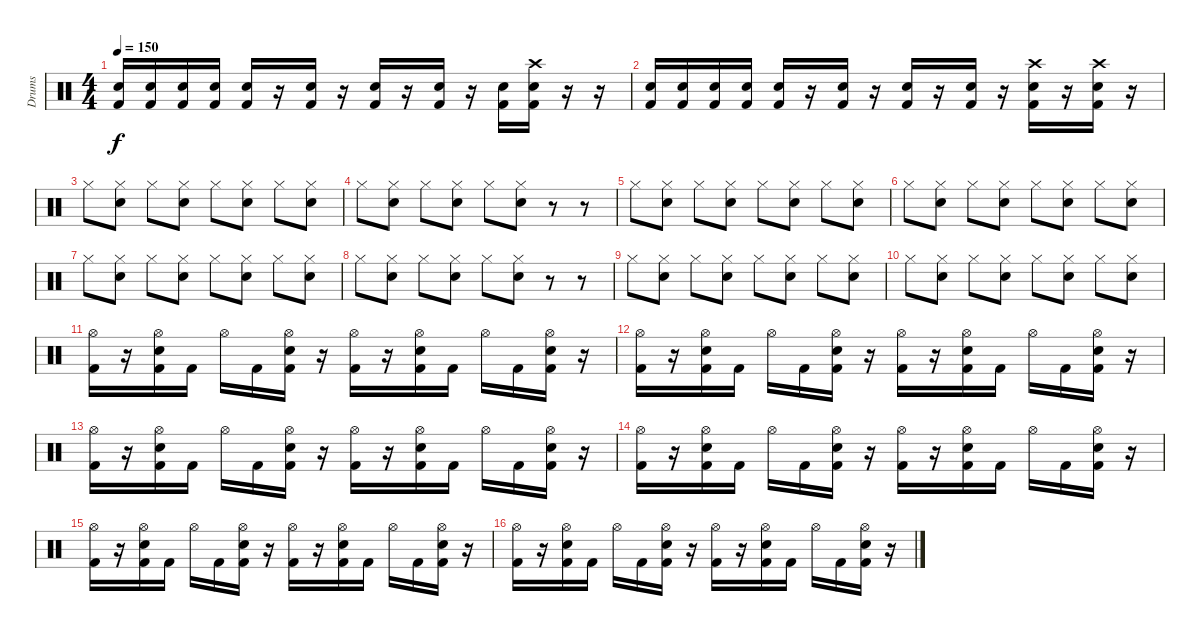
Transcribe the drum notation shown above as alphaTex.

\track ("Drums" "Drums") {instrument percussion}
\staff {score}
\articulation defaults
\ts (4 4)
\tempo 150
\clef neutral
\ks c
("Electric Snare (hit)" "Kick (hit) 2").16{dy f} ("Electric Snare (hit)" "Kick (hit) 2").16 ("Electric Snare (hit)" "Kick (hit) 2").16 ("Electric Snare (hit)" "Kick (hit) 2").16 ("Electric Snare (hit)" "Kick (hit) 2").16 r.16 ("Electric Snare (hit)" "Kick (hit) 2").16 r.16 ("Electric Snare (hit)" "Kick (hit) 2").16 r.16 ("Electric Snare (hit)" "Kick (hit) 2").16 r.16 ("Electric Snare (hit)" "Kick (hit) 2").16 ("Electric Snare (hit)" "Crash high (hit)" "Kick (hit) 2").16 r.16 r.16 |
("Electric Snare (hit)" "Kick (hit) 2").16 ("Electric Snare (hit)" "Kick (hit) 2").16 ("Electric Snare (hit)" "Kick (hit) 2").16 ("Electric Snare (hit)" "Kick (hit) 2").16 ("Electric Snare (hit)" "Kick (hit) 2").16 r.16 ("Electric Snare (hit)" "Kick (hit) 2").16 r.16 ("Electric Snare (hit)" "Kick (hit) 2").16 r.16 ("Electric Snare (hit)" "Kick (hit) 2").16 r.16 ("Electric Snare (hit)" "Kick (hit) 2" "Crash high (hit)").16 r.16 ("Electric Snare (hit)" "Kick (hit) 2" "Crash high (hit)").16 r.16 |
"Hi-Hat (closed)".8 ("Hi-Hat (closed)" "Electric Snare (hit)").8 "Hi-Hat (closed)".8 ("Hi-Hat (closed)" "Electric Snare (hit)").8 "Hi-Hat (closed)".8 ("Hi-Hat (closed)" "Electric Snare (hit)").8 "Hi-Hat (closed)".8 ("Hi-Hat (closed)" "Electric Snare (hit)").8 |
"Hi-Hat (closed)".8 ("Hi-Hat (closed)" "Electric Snare (hit)").8 "Hi-Hat (closed)".8 ("Hi-Hat (closed)" "Electric Snare (hit)").8 "Hi-Hat (closed)".8 ("Hi-Hat (closed)" "Electric Snare (hit)").8 r.8 r.8 |
"Hi-Hat (closed)".8 ("Hi-Hat (closed)" "Electric Snare (hit)").8 "Hi-Hat (closed)".8 ("Hi-Hat (closed)" "Electric Snare (hit)").8 "Hi-Hat (closed)".8 ("Hi-Hat (closed)" "Electric Snare (hit)").8 "Hi-Hat (closed)".8 ("Hi-Hat (closed)" "Electric Snare (hit)").8 |
"Hi-Hat (closed)".8 ("Hi-Hat (closed)" "Electric Snare (hit)").8 "Hi-Hat (closed)".8 ("Hi-Hat (closed)" "Electric Snare (hit)").8 "Hi-Hat (closed)".8 ("Hi-Hat (closed)" "Electric Snare (hit)").8 "Hi-Hat (closed)".8 ("Hi-Hat (closed)" "Electric Snare (hit)").8 |
"Hi-Hat (closed)".8 ("Hi-Hat (closed)" "Electric Snare (hit)").8 "Hi-Hat (closed)".8 ("Hi-Hat (closed)" "Electric Snare (hit)").8 "Hi-Hat (closed)".8 ("Hi-Hat (closed)" "Electric Snare (hit)").8 "Hi-Hat (closed)".8 ("Hi-Hat (closed)" "Electric Snare (hit)").8 |
"Hi-Hat (closed)".8 ("Hi-Hat (closed)" "Electric Snare (hit)").8 "Hi-Hat (closed)".8 ("Hi-Hat (closed)" "Electric Snare (hit)").8 "Hi-Hat (closed)".8 ("Hi-Hat (closed)" "Electric Snare (hit)").8 r.8 r.8 |
"Hi-Hat (closed)".8 ("Hi-Hat (closed)" "Electric Snare (hit)").8 "Hi-Hat (closed)".8 ("Hi-Hat (closed)" "Electric Snare (hit)").8 "Hi-Hat (closed)".8 ("Hi-Hat (closed)" "Electric Snare (hit)").8 "Hi-Hat (closed)".8 ("Hi-Hat (closed)" "Electric Snare (hit)").8 |
"Hi-Hat (closed)".8 ("Hi-Hat (closed)" "Electric Snare (hit)").8 "Hi-Hat (closed)".8 ("Hi-Hat (closed)" "Electric Snare (hit)").8 "Hi-Hat (closed)".8 ("Hi-Hat (closed)" "Electric Snare (hit)").8 "Hi-Hat (closed)".8 ("Hi-Hat (closed)" "Electric Snare (hit)").8 |
("Hi-Hat (open)" "Kick (hit) 2").16 r.16 ("Hi-Hat (open)" "Electric Snare (hit)" "Kick (hit) 2").16 "Kick (hit) 2".16 "Hi-Hat (open)".16 "Kick (hit) 2".16 ("Hi-Hat (open)" "Electric Snare (hit)" "Kick (hit) 2").16 r.16 ("Hi-Hat (open)" "Kick (hit) 2").16 r.16 ("Hi-Hat (open)" "Electric Snare (hit)" "Kick (hit) 2").16 "Kick (hit) 2".16 "Hi-Hat (open)".16 "Kick (hit) 2".16 ("Hi-Hat (open)" "Electric Snare (hit)" "Kick (hit) 2").16 r.16 |
("Hi-Hat (open)" "Kick (hit) 2").16 r.16 ("Hi-Hat (open)" "Electric Snare (hit)" "Kick (hit) 2").16 "Kick (hit) 2".16 "Hi-Hat (open)".16 "Kick (hit) 2".16 ("Hi-Hat (open)" "Electric Snare (hit)" "Kick (hit) 2").16 r.16 ("Hi-Hat (open)" "Kick (hit) 2").16 r.16 ("Hi-Hat (open)" "Electric Snare (hit)" "Kick (hit) 2").16 "Kick (hit) 2".16 "Hi-Hat (open)".16 "Kick (hit) 2".16 ("Hi-Hat (open)" "Electric Snare (hit)" "Kick (hit) 2").16 r.16 |
("Hi-Hat (open)" "Kick (hit) 2").16 r.16 ("Hi-Hat (open)" "Electric Snare (hit)" "Kick (hit) 2").16 "Kick (hit) 2".16 "Hi-Hat (open)".16 "Kick (hit) 2".16 ("Hi-Hat (open)" "Electric Snare (hit)" "Kick (hit) 2").16 r.16 ("Hi-Hat (open)" "Kick (hit) 2").16 r.16 ("Hi-Hat (open)" "Electric Snare (hit)" "Kick (hit) 2").16 "Kick (hit) 2".16 "Hi-Hat (open)".16 "Kick (hit) 2".16 ("Hi-Hat (open)" "Electric Snare (hit)" "Kick (hit) 2").16 r.16 |
("Hi-Hat (open)" "Kick (hit) 2").16 r.16 ("Hi-Hat (open)" "Electric Snare (hit)" "Kick (hit) 2").16 "Kick (hit) 2".16 "Hi-Hat (open)".16 "Kick (hit) 2".16 ("Hi-Hat (open)" "Electric Snare (hit)" "Kick (hit) 2").16 r.16 ("Hi-Hat (open)" "Kick (hit) 2").16 r.16 ("Hi-Hat (open)" "Electric Snare (hit)" "Kick (hit) 2").16 "Kick (hit) 2".16 "Hi-Hat (open)".16 "Kick (hit) 2".16 ("Hi-Hat (open)" "Electric Snare (hit)" "Kick (hit) 2").16 r.16 |
("Hi-Hat (open)" "Kick (hit) 2").16 r.16 ("Hi-Hat (open)" "Electric Snare (hit)" "Kick (hit) 2").16 "Kick (hit) 2".16 "Hi-Hat (open)".16 "Kick (hit) 2".16 ("Hi-Hat (open)" "Electric Snare (hit)" "Kick (hit) 2").16 r.16 ("Hi-Hat (open)" "Kick (hit) 2").16 r.16 ("Hi-Hat (open)" "Electric Snare (hit)" "Kick (hit) 2").16 "Kick (hit) 2".16 "Hi-Hat (open)".16 "Kick (hit) 2".16 ("Hi-Hat (open)" "Electric Snare (hit)" "Kick (hit) 2").16 r.16 |
("Hi-Hat (open)" "Kick (hit) 2").16 r.16 ("Hi-Hat (open)" "Electric Snare (hit)" "Kick (hit) 2").16 "Kick (hit) 2".16 "Hi-Hat (open)".16 "Kick (hit) 2".16 ("Hi-Hat (open)" "Electric Snare (hit)" "Kick (hit) 2").16 r.16 ("Hi-Hat (open)" "Kick (hit) 2").16 r.16 ("Hi-Hat (open)" "Electric Snare (hit)" "Kick (hit) 2").16 "Kick (hit) 2".16 "Hi-Hat (open)".16 "Kick (hit) 2".16 ("Hi-Hat (open)" "Electric Snare (hit)" "Kick (hit) 2").16 r.16
